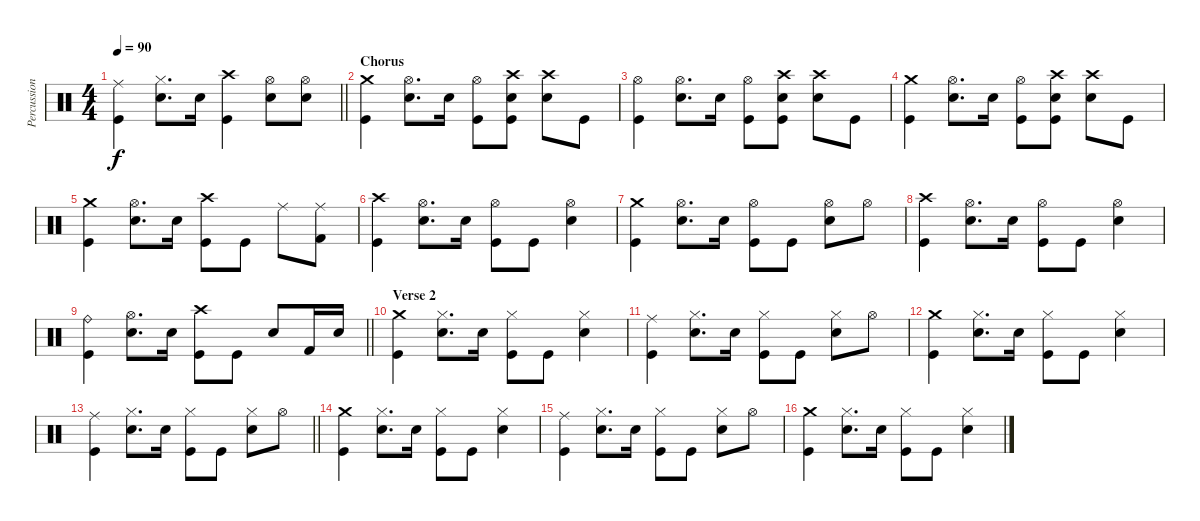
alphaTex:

\track ("Percussion" "Percussion") {instrument percussion}
\staff {score}
\articulation defaults
\ts (4 4)
\tempo 90
\clef neutral
\barLineRight lightlight
\ks c
("Ride (middle)" "Kick (hit)").4{dy f} ("Electric Snare (hit)" "Hi-Hat (closed)").8{d} "Electric Snare (hit)".16 ("Crash high (hit)" "Kick (hit)").4 ("Electric Snare (hit)" "Hi-Hat (open)").8 ("Electric Snare (hit)" "Hi-Hat (open)").8 |
\section ("" "Chorus")
("Crash medium (hit)" "Kick (hit)").4 ("Electric Snare (hit)" "Hi-Hat (open)").8{d} "Electric Snare (hit)".16 ("Hi-Hat (open)" "Kick (hit)").8 ("Crash high (hit)" "Electric Snare (hit)" "Kick (hit)").8 ("Crash high (hit)" "Electric Snare (hit)").8 "Kick (hit)".8 |
("Hi-Hat (open)" "Kick (hit)").4 ("Electric Snare (hit)" "Hi-Hat (open)").8{d} "Electric Snare (hit)".16 ("Hi-Hat (open)" "Kick (hit)").8 ("Crash high (hit)" "Electric Snare (hit)" "Kick (hit)").8 ("Crash high (hit)" "Electric Snare (hit)").8 "Kick (hit)".8 |
("Crash medium (hit)" "Kick (hit)").4 ("Electric Snare (hit)" "Hi-Hat (open)").8{d} "Electric Snare (hit)".16 ("Hi-Hat (open)" "Kick (hit)").8 ("Crash high (hit)" "Electric Snare (hit)" "Kick (hit)").8 ("Crash high (hit)" "Electric Snare (hit)").8 "Kick (hit)".8 |
("Crash medium (hit)" "Kick (hit)").4 ("Electric Snare (hit)" "Hi-Hat (open)").8{d} "Electric Snare (hit)".16 ("Crash high (hit)" "Kick (hit)").8 "Kick (hit)".8 "Ride (middle)".8 ("Ride (middle)" "Kick (hit) 2").8 |
("Crash high (hit)" "Kick (hit)").4 ("Electric Snare (hit)" "Hi-Hat (open)").8{d} "Electric Snare (hit)".16 ("Hi-Hat (open)" "Kick (hit)").8 "Kick (hit)".8 ("Electric Snare (hit)" "Hi-Hat (open)").4 |
("Crash medium (hit)" "Kick (hit)").4 ("Electric Snare (hit)" "Hi-Hat (open)").8{d} "Electric Snare (hit)".16 ("Hi-Hat (open)" "Kick (hit)").8 "Kick (hit)".8 ("Electric Snare (hit)" "Hi-Hat (open)").8 "Hi-Hat (open)".8 |
("Crash high (hit)" "Kick (hit)").4 ("Electric Snare (hit)" "Hi-Hat (open)").8{d} "Electric Snare (hit)".16 ("Hi-Hat (open)" "Kick (hit)").8 "Kick (hit)".8 ("Electric Snare (hit)" "Hi-Hat (open)").4 |
\barLineRight lightlight
("Ride (bell)" "Kick (hit)").4 ("Electric Snare (hit)" "Hi-Hat (open)").8{d} "Electric Snare (hit)".16 ("Crash high (hit)" "Kick (hit)").8 "Kick (hit)".8 "Electric Snare (hit)".8 "Kick (hit) 2".16 "Electric Snare (hit)".16 |
\section ("" "Verse 2")
("Crash medium (hit)" "Kick (hit)").4 ("Electric Snare (hit)" "Hi-Hat (closed)").8{d} "Electric Snare (hit)".16 ("Hi-Hat (closed)" "Kick (hit)").8 "Kick (hit)".8 ("Electric Snare (hit)" "Hi-Hat (closed)").4 |
("Ride (middle)" "Kick (hit)").4 ("Electric Snare (hit)" "Hi-Hat (closed)").8{d} "Electric Snare (hit)".16 ("Hi-Hat (closed)" "Kick (hit)").8 "Kick (hit)".8 ("Electric Snare (hit)" "Hi-Hat (closed)").8 "Hi-Hat (open)".8 |
("Crash medium (hit)" "Kick (hit)").4 ("Electric Snare (hit)" "Hi-Hat (closed)").8{d} "Electric Snare (hit)".16 ("Hi-Hat (closed)" "Kick (hit)").8 "Kick (hit)".8 ("Electric Snare (hit)" "Hi-Hat (closed)").4 |
\barLineRight lightlight
("Ride (middle)" "Kick (hit)").4 ("Electric Snare (hit)" "Hi-Hat (closed)").8{d} "Electric Snare (hit)".16 ("Hi-Hat (closed)" "Kick (hit)").8 "Kick (hit)".8 ("Electric Snare (hit)" "Hi-Hat (closed)").8 "Hi-Hat (open)".8 |
("Crash medium (hit)" "Kick (hit)").4 ("Electric Snare (hit)" "Hi-Hat (closed)").8{d} "Electric Snare (hit)".16 ("Hi-Hat (closed)" "Kick (hit)").8 "Kick (hit)".8 ("Electric Snare (hit)" "Hi-Hat (closed)").4 |
("Ride (middle)" "Kick (hit)").4 ("Electric Snare (hit)" "Hi-Hat (closed)").8{d} "Electric Snare (hit)".16 ("Hi-Hat (closed)" "Kick (hit)").8 "Kick (hit)".8 ("Electric Snare (hit)" "Hi-Hat (closed)").8 "Hi-Hat (open)".8 |
("Crash medium (hit)" "Kick (hit)").4 ("Electric Snare (hit)" "Hi-Hat (closed)").8{d} "Electric Snare (hit)".16 ("Hi-Hat (closed)" "Kick (hit)").8 "Kick (hit)".8 ("Electric Snare (hit)" "Hi-Hat (closed)").4
